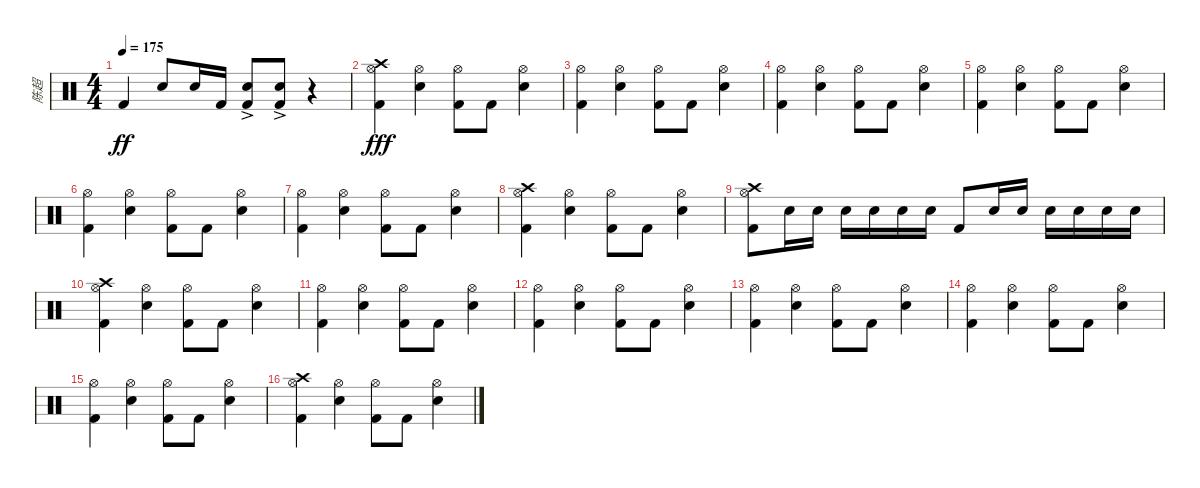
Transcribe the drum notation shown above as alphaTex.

\track ("陈超" "陈超") {instrument percussion}
\staff {score}
\articulation defaults
\ts (4 4)
\tempo 175
\clef neutral
\ks c "Kick (hit) 2".4{dy ff} "Electric Snare (hit)".8 "Electric Snare (hit)".16 "Kick (hit) 2".16
("Electric Snare (hit)"{ac} "Kick (hit) 2"{ac}).8 ("Electric Snare (hit)"{ac} "Kick (hit) 2"{ac}).8 r.4 |
("Crash high (hit)" "Hi-Hat (open)" "Kick (hit) 2").4{dy fff} ("Hi-Hat (open)" "Electric Snare (hit)").4 ("Hi-Hat (open)" "Kick (hit) 2").8 "Kick (hit) 2".8 ("Hi-Hat (open)" "Electric Snare (hit)").4 |
("Hi-Hat (open)" "Kick (hit) 2").4 ("Hi-Hat (open)" "Electric Snare (hit)").4 ("Hi-Hat (open)" "Kick (hit) 2").8 "Kick (hit) 2".8 ("Hi-Hat (open)" "Electric Snare (hit)").4 |
("Hi-Hat (open)" "Kick (hit) 2").4 ("Hi-Hat (open)" "Electric Snare (hit)").4 ("Hi-Hat (open)" "Kick (hit) 2").8 "Kick (hit) 2".8 ("Hi-Hat (open)" "Electric Snare (hit)").4 |
("Hi-Hat (open)" "Kick (hit) 2").4 ("Hi-Hat (open)" "Electric Snare (hit)").4 ("Hi-Hat (open)" "Kick (hit) 2").8 "Kick (hit) 2".8 ("Hi-Hat (open)" "Electric Snare (hit)").4 |
("Hi-Hat (open)" "Kick (hit) 2").4 ("Hi-Hat (open)" "Electric Snare (hit)").4 ("Hi-Hat (open)" "Kick (hit) 2").8 "Kick (hit) 2".8 ("Hi-Hat (open)" "Electric Snare (hit)").4 |
("Hi-Hat (open)" "Kick (hit) 2").4 ("Hi-Hat (open)" "Electric Snare (hit)").4 ("Hi-Hat (open)" "Kick (hit) 2").8 "Kick (hit) 2".8 ("Hi-Hat (open)" "Electric Snare (hit)").4 |
("Crash high (hit)" "Hi-Hat (open)" "Kick (hit) 2").4 ("Hi-Hat (open)" "Electric Snare (hit)").4 ("Hi-Hat (open)" "Kick (hit) 2").8 "Kick (hit) 2".8 ("Hi-Hat (open)" "Electric Snare (hit)").4 |
("Crash high (hit)" "Hi-Hat (open)" "Kick (hit) 2").8 "Electric Snare (hit)".16 "Electric Snare (hit)".16 "Electric Snare (hit)".16 "Electric Snare (hit)".16 "Electric Snare (hit)".16 "Electric Snare (hit)".16 "Kick (hit) 2".8 "Electric Snare (hit)".16 "Electric Snare (hit)".16 "Electric Snare (hit)".16 "Electric Snare (hit)".16 "Electric Snare (hit)".16 "Electric Snare (hit)".16 |
("Crash high (hit)" "Hi-Hat (open)" "Kick (hit) 2").4 ("Hi-Hat (open)" "Electric Snare (hit)").4 ("Hi-Hat (open)" "Kick (hit) 2").8 "Kick (hit) 2".8 ("Hi-Hat (open)" "Electric Snare (hit)").4 |
("Hi-Hat (open)" "Kick (hit) 2").4 ("Hi-Hat (open)" "Electric Snare (hit)").4 ("Hi-Hat (open)" "Kick (hit) 2").8 "Kick (hit) 2".8 ("Hi-Hat (open)" "Electric Snare (hit)").4 |
("Hi-Hat (open)" "Kick (hit) 2").4 ("Hi-Hat (open)" "Electric Snare (hit)").4 ("Hi-Hat (open)" "Kick (hit) 2").8 "Kick (hit) 2".8 ("Hi-Hat (open)" "Electric Snare (hit)").4 |
("Hi-Hat (open)" "Kick (hit) 2").4 ("Hi-Hat (open)" "Electric Snare (hit)").4 ("Hi-Hat (open)" "Kick (hit) 2").8 "Kick (hit) 2".8 ("Hi-Hat (open)" "Electric Snare (hit)").4 |
("Hi-Hat (open)" "Kick (hit) 2").4 ("Hi-Hat (open)" "Electric Snare (hit)").4 ("Hi-Hat (open)" "Kick (hit) 2").8 "Kick (hit) 2".8 ("Hi-Hat (open)" "Electric Snare (hit)").4 |
("Hi-Hat (open)" "Kick (hit) 2").4 ("Hi-Hat (open)" "Electric Snare (hit)").4 ("Hi-Hat (open)" "Kick (hit) 2").8 "Kick (hit) 2".8 ("Hi-Hat (open)" "Electric Snare (hit)").4 |
("Crash high (hit)" "Hi-Hat (open)" "Kick (hit) 2").4 ("Hi-Hat (open)" "Electric Snare (hit)").4 ("Hi-Hat (open)" "Kick (hit) 2").8 "Kick (hit) 2".8 ("Hi-Hat (open)" "Electric Snare (hit)").4
